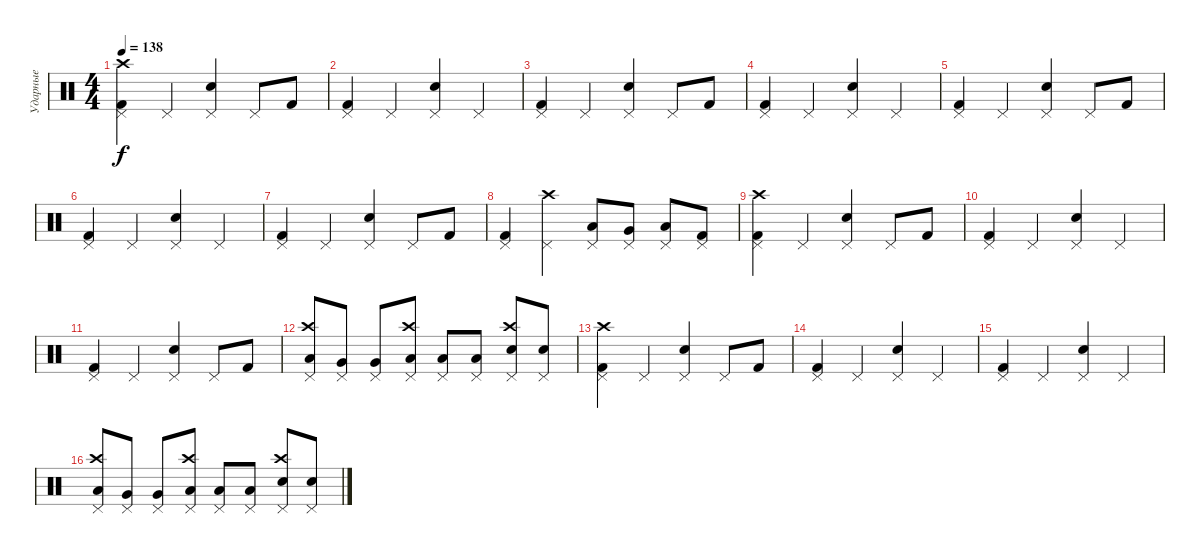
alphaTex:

\track ("Ударные" "Ударные") {instrument percussion}
\staff {score}
\articulation defaults
\ts (4 4)
\tempo 138
\clef neutral
\ks c
("Kick (hit) 2" "Pedal Hi-Hat (hit)" "Crash high (hit)").4{dy f} "Pedal Hi-Hat (hit)".4 ("Electric Snare (hit)" "Pedal Hi-Hat (hit)").4 "Pedal Hi-Hat (hit)".8 "Kick (hit) 2".8 |
("Kick (hit) 2" "Pedal Hi-Hat (hit)").4 "Pedal Hi-Hat (hit)".4 ("Electric Snare (hit)" "Pedal Hi-Hat (hit)").4 "Pedal Hi-Hat (hit)".4 |
("Kick (hit) 2" "Pedal Hi-Hat (hit)").4 "Pedal Hi-Hat (hit)".4 ("Electric Snare (hit)" "Pedal Hi-Hat (hit)").4 "Pedal Hi-Hat (hit)".8 "Kick (hit) 2".8 |
("Kick (hit) 2" "Pedal Hi-Hat (hit)").4 "Pedal Hi-Hat (hit)".4 ("Electric Snare (hit)" "Pedal Hi-Hat (hit)").4 "Pedal Hi-Hat (hit)".4 |
("Kick (hit) 2" "Pedal Hi-Hat (hit)").4 "Pedal Hi-Hat (hit)".4 ("Electric Snare (hit)" "Pedal Hi-Hat (hit)").4 "Pedal Hi-Hat (hit)".8 "Kick (hit) 2".8 |
("Kick (hit) 2" "Pedal Hi-Hat (hit)").4 "Pedal Hi-Hat (hit)".4 ("Electric Snare (hit)" "Pedal Hi-Hat (hit)").4 "Pedal Hi-Hat (hit)".4 |
("Kick (hit) 2" "Pedal Hi-Hat (hit)").4 "Pedal Hi-Hat (hit)".4 ("Electric Snare (hit)" "Pedal Hi-Hat (hit)").4 "Pedal Hi-Hat (hit)".8 "Kick (hit) 2".8 |
("Kick (hit) 2" "Pedal Hi-Hat (hit)").4 ("Pedal Hi-Hat (hit)" "Crash high (hit)").4 ("Pedal Hi-Hat (hit)" "Low Floor Tom (hit)").8 ("Pedal Hi-Hat (hit)" "Very Low Tom (hit)").8 ("Pedal Hi-Hat (hit)" "Low Tom (hit)").8 ("Pedal Hi-Hat (hit)" "Kick (hit) 2").8 |
("Kick (hit) 2" "Pedal Hi-Hat (hit)" "Crash high (hit)").4 "Pedal Hi-Hat (hit)".4 ("Electric Snare (hit)" "Pedal Hi-Hat (hit)").4 "Pedal Hi-Hat (hit)".8 "Kick (hit) 2".8 |
("Kick (hit) 2" "Pedal Hi-Hat (hit)").4 "Pedal Hi-Hat (hit)".4 ("Electric Snare (hit)" "Pedal Hi-Hat (hit)").4 "Pedal Hi-Hat (hit)".4 |
("Kick (hit) 2" "Pedal Hi-Hat (hit)").4 "Pedal Hi-Hat (hit)".4 ("Electric Snare (hit)" "Pedal Hi-Hat (hit)").4 "Pedal Hi-Hat (hit)".8 "Kick (hit) 2".8 |
("Pedal Hi-Hat (hit)" "Low Tom (hit)" "Crash high (hit)").8 ("Pedal Hi-Hat (hit)" "Very Low Tom (hit)").8 ("Pedal Hi-Hat (hit)" "Very Low Tom (hit)").8 ("Pedal Hi-Hat (hit)" "Low Tom (hit)" "Crash high (hit)").8 ("Pedal Hi-Hat (hit)" "Low Floor Tom (hit)").8 ("Pedal Hi-Hat (hit)" "Low Floor Tom (hit)").8 ("Pedal Hi-Hat (hit)" "Snare (hit) 2" "Crash high (hit)").8 ("Pedal Hi-Hat (hit)" "Snare (hit) 2").8 |
("Kick (hit) 2" "Pedal Hi-Hat (hit)" "Crash high (hit)").4 "Pedal Hi-Hat (hit)".4 ("Electric Snare (hit)" "Pedal Hi-Hat (hit)").4 "Pedal Hi-Hat (hit)".8 "Kick (hit) 2".8 |
("Kick (hit) 2" "Pedal Hi-Hat (hit)").4 "Pedal Hi-Hat (hit)".4 ("Electric Snare (hit)" "Pedal Hi-Hat (hit)").4 "Pedal Hi-Hat (hit)".4 |
("Kick (hit) 2" "Pedal Hi-Hat (hit)").4 "Pedal Hi-Hat (hit)".4 ("Electric Snare (hit)" "Pedal Hi-Hat (hit)").4 "Pedal Hi-Hat (hit)".4 |
("Pedal Hi-Hat (hit)" "Low Tom (hit)" "Crash high (hit)").8 ("Pedal Hi-Hat (hit)" "Very Low Tom (hit)").8 ("Pedal Hi-Hat (hit)" "Very Low Tom (hit)").8 ("Pedal Hi-Hat (hit)" "Low Tom (hit)" "Crash high (hit)").8 ("Pedal Hi-Hat (hit)" "Low Floor Tom (hit)").8 ("Pedal Hi-Hat (hit)" "Low Floor Tom (hit)").8 ("Pedal Hi-Hat (hit)" "Snare (hit) 2" "Crash high (hit)").8 ("Pedal Hi-Hat (hit)" "Snare (hit) 2").8
